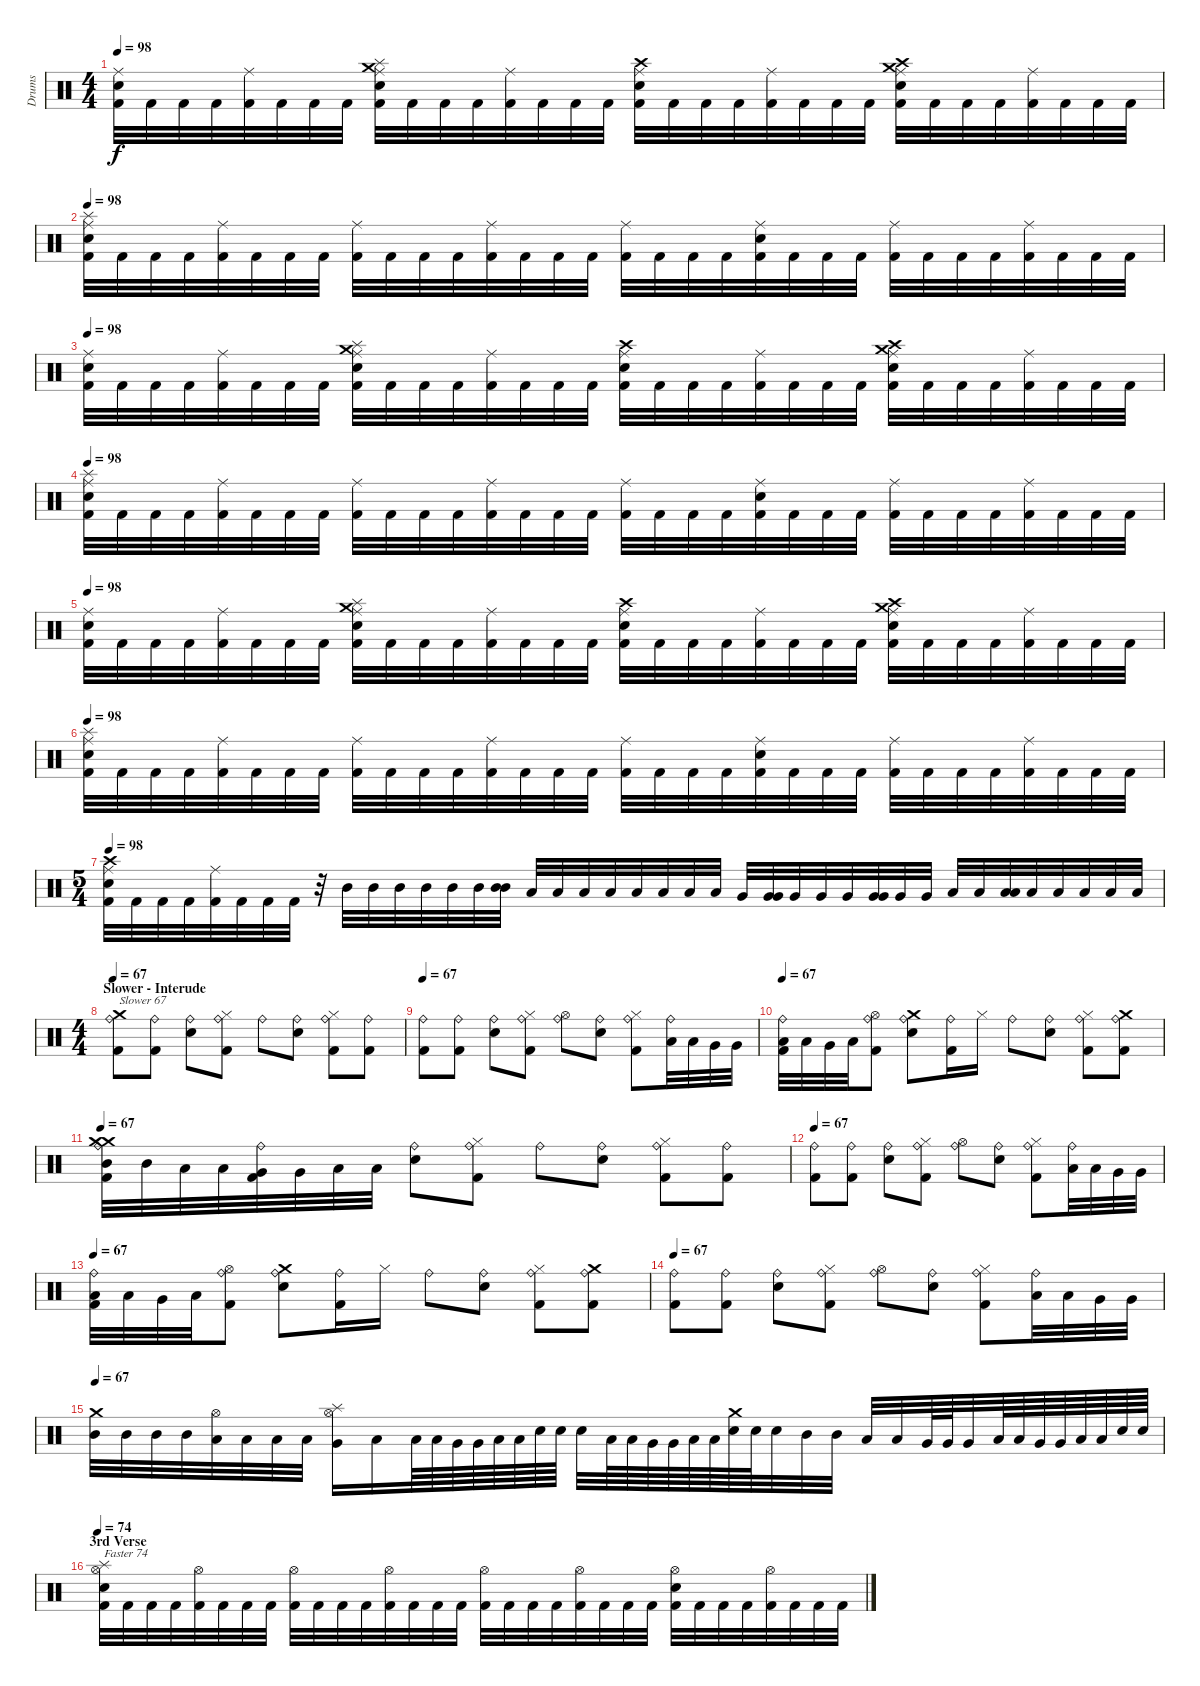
\track ("Drums" "Drums") {instrument percussion}
\staff {score}
\articulation defaults
\ts (4 4)
\tempo 98
\clef neutral
\ks c
("Ride (middle)" "Electric Snare (hit)" "Kick (hit) 2").32{dy f} "Kick (hit) 2".32 "Kick (hit) 2".32 "Kick (hit) 2".32 ("Kick (hit) 2" "Ride (middle)").32 "Kick (hit) 2".32 "Kick (hit) 2".32 "Kick (hit) 2".32 ("Kick (hit) 2" "Ride (middle)" "Electric Snare (hit)" "Splash (hit)" "Crash medium (hit)").32 "Kick (hit) 2".32 "Kick (hit) 2".32 "Kick (hit) 2".32 ("Kick (hit) 2" "Ride (middle)").32 "Kick (hit) 2".32 "Kick (hit) 2".32 "Kick (hit) 2".32 ("Kick (hit) 2" "Ride (middle)" "Electric Snare (hit)" "Crash high (hit)").32 "Kick (hit) 2".32 "Kick (hit) 2".32 "Kick (hit) 2".32 ("Kick (hit) 2" "Ride (middle)").32 "Kick (hit) 2".32 "Kick (hit) 2".32 "Kick (hit) 2".32 ("Electric Snare (hit)" "Kick (hit) 2" "Ride (middle)" "Crash medium (hit)" "Crash high (hit)").32 "Kick (hit) 2".32 "Kick (hit) 2".32 "Kick (hit) 2".32 ("Kick (hit) 2" "Ride (middle)").32 "Kick (hit) 2".32 "Kick (hit) 2".32 "Kick (hit) 2".32 |
\tempo 98
("Ride (middle)" "Electric Snare (hit)" "Splash (hit)" "Kick (hit) 2").32 "Kick (hit) 2".32 "Kick (hit) 2".32 "Kick (hit) 2".32 ("Kick (hit) 2" "Ride (middle)").32 "Kick (hit) 2".32 "Kick (hit) 2".32 "Kick (hit) 2".32 ("Kick (hit) 2" "Ride (middle)").32 "Kick (hit) 2".32 "Kick (hit) 2".32 "Kick (hit) 2".32 ("Kick (hit) 2" "Ride (middle)").32 "Kick (hit) 2".32 "Kick (hit) 2".32 "Kick (hit) 2".32 ("Kick (hit) 2" "Ride (middle)").32 "Kick (hit) 2".32 "Kick (hit) 2".32 "Kick (hit) 2".32 ("Kick (hit) 2" "Ride (middle)" "Electric Snare (hit)").32 "Kick (hit) 2".32 "Kick (hit) 2".32 "Kick (hit) 2".32 ("Kick (hit) 2" "Ride (middle)").32 "Kick (hit) 2".32 "Kick (hit) 2".32 "Kick (hit) 2".32 ("Kick (hit) 2" "Ride (middle)").32 "Kick (hit) 2".32 "Kick (hit) 2".32 "Kick (hit) 2".32 |
\tempo 98
("Ride (middle)" "Electric Snare (hit)" "Kick (hit) 2").32 "Kick (hit) 2".32 "Kick (hit) 2".32 "Kick (hit) 2".32 ("Kick (hit) 2" "Ride (middle)").32 "Kick (hit) 2".32 "Kick (hit) 2".32 "Kick (hit) 2".32 ("Kick (hit) 2" "Ride (middle)" "Electric Snare (hit)" "Splash (hit)" "Crash medium (hit)").32 "Kick (hit) 2".32 "Kick (hit) 2".32 "Kick (hit) 2".32 ("Kick (hit) 2" "Ride (middle)").32 "Kick (hit) 2".32 "Kick (hit) 2".32 "Kick (hit) 2".32 ("Kick (hit) 2" "Ride (middle)" "Electric Snare (hit)" "Crash high (hit)").32 "Kick (hit) 2".32 "Kick (hit) 2".32 "Kick (hit) 2".32 ("Kick (hit) 2" "Ride (middle)").32 "Kick (hit) 2".32 "Kick (hit) 2".32 "Kick (hit) 2".32 ("Electric Snare (hit)" "Kick (hit) 2" "Ride (middle)" "Crash medium (hit)" "Crash high (hit)").32 "Kick (hit) 2".32 "Kick (hit) 2".32 "Kick (hit) 2".32 ("Kick (hit) 2" "Ride (middle)").32 "Kick (hit) 2".32 "Kick (hit) 2".32 "Kick (hit) 2".32 |
\tempo 98
("Ride (middle)" "Electric Snare (hit)" "Splash (hit)" "Kick (hit) 2").32 "Kick (hit) 2".32 "Kick (hit) 2".32 "Kick (hit) 2".32 ("Kick (hit) 2" "Ride (middle)").32 "Kick (hit) 2".32 "Kick (hit) 2".32 "Kick (hit) 2".32 ("Kick (hit) 2" "Ride (middle)").32 "Kick (hit) 2".32 "Kick (hit) 2".32 "Kick (hit) 2".32 ("Kick (hit) 2" "Ride (middle)").32 "Kick (hit) 2".32 "Kick (hit) 2".32 "Kick (hit) 2".32 ("Kick (hit) 2" "Ride (middle)").32 "Kick (hit) 2".32 "Kick (hit) 2".32 "Kick (hit) 2".32 ("Kick (hit) 2" "Ride (middle)" "Electric Snare (hit)").32 "Kick (hit) 2".32 "Kick (hit) 2".32 "Kick (hit) 2".32 ("Kick (hit) 2" "Ride (middle)").32 "Kick (hit) 2".32 "Kick (hit) 2".32 "Kick (hit) 2".32 ("Kick (hit) 2" "Ride (middle)").32 "Kick (hit) 2".32 "Kick (hit) 2".32 "Kick (hit) 2".32 |
\tempo 98
("Ride (middle)" "Electric Snare (hit)" "Kick (hit) 2").32 "Kick (hit) 2".32 "Kick (hit) 2".32 "Kick (hit) 2".32 ("Kick (hit) 2" "Ride (middle)").32 "Kick (hit) 2".32 "Kick (hit) 2".32 "Kick (hit) 2".32 ("Kick (hit) 2" "Ride (middle)" "Electric Snare (hit)" "Splash (hit)" "Crash medium (hit)").32 "Kick (hit) 2".32 "Kick (hit) 2".32 "Kick (hit) 2".32 ("Kick (hit) 2" "Ride (middle)").32 "Kick (hit) 2".32 "Kick (hit) 2".32 "Kick (hit) 2".32 ("Kick (hit) 2" "Ride (middle)" "Electric Snare (hit)" "Crash high (hit)").32 "Kick (hit) 2".32 "Kick (hit) 2".32 "Kick (hit) 2".32 ("Kick (hit) 2" "Ride (middle)").32 "Kick (hit) 2".32 "Kick (hit) 2".32 "Kick (hit) 2".32 ("Electric Snare (hit)" "Kick (hit) 2" "Ride (middle)" "Crash medium (hit)" "Crash high (hit)").32 "Kick (hit) 2".32 "Kick (hit) 2".32 "Kick (hit) 2".32 ("Kick (hit) 2" "Ride (middle)").32 "Kick (hit) 2".32 "Kick (hit) 2".32 "Kick (hit) 2".32 |
\tempo 98
("Kick (hit) 2" "Splash (hit)" "Electric Snare (hit)" "Ride (middle)").32 "Kick (hit) 2".32 "Kick (hit) 2".32 "Kick (hit) 2".32 ("Kick (hit) 2" "Ride (middle)").32 "Kick (hit) 2".32 "Kick (hit) 2".32 "Kick (hit) 2".32 ("Kick (hit) 2" "Ride (middle)").32 "Kick (hit) 2".32 "Kick (hit) 2".32 "Kick (hit) 2".32 ("Kick (hit) 2" "Ride (middle)").32 "Kick (hit) 2".32 "Kick (hit) 2".32 "Kick (hit) 2".32 ("Kick (hit) 2" "Ride (middle)").32 "Kick (hit) 2".32 "Kick (hit) 2".32 "Kick (hit) 2".32 ("Kick (hit) 2" "Ride (middle)" "Electric Snare (hit)").32 "Kick (hit) 2".32 "Kick (hit) 2".32 "Kick (hit) 2".32 ("Kick (hit) 2" "Ride (middle)").32 "Kick (hit) 2".32 "Kick (hit) 2".32 "Kick (hit) 2".32 ("Kick (hit) 2" "Ride (middle)").32 "Kick (hit) 2".32 "Kick (hit) 2".32 "Kick (hit) 2".32 |
\ts (5 4)
\tempo 98
("Ride (middle)" "Electric Snare (hit)" "Kick (hit) 2" "Crash high (hit)").32 "Kick (hit) 2".32 "Kick (hit) 2".32 "Kick (hit) 2".32 ("Kick (hit) 2" "Ride (middle)").32 "Kick (hit) 2".32 "Kick (hit) 2".32 "Kick (hit) 2".32 r.32 "Mid Tom (hit)".32 "Mid Tom (hit)".32 "Mid Tom (hit)".32 "Mid Tom (hit)".32 "Mid Tom (hit)".32 "Mid Tom (hit)".32 ("Mid Tom (hit)" "Mid Tom (hit)").32 "Low Tom (hit)".32 "Low Tom (hit)".32 "Low Tom (hit)".32 "Low Tom (hit)".32 "Low Tom (hit)".32 "Low Tom (hit)".32 "Low Tom (hit)".32 "Low Tom (hit)".32 "Very Low Tom (hit)".32 ("Very Low Tom (hit)" "Very Low Tom (hit)").32 "Very Low Tom (hit)".32 "Very Low Tom (hit)".32 "Very Low Tom (hit)".32 ("Very Low Tom (hit)" "Very Low Tom (hit)").32 "Very Low Tom (hit)".32 "Very Low Tom (hit)".32 "Low Floor Tom (hit)".32 "Low Floor Tom (hit)".32 ("Low Floor Tom (hit)" "Low Floor Tom (hit)").32 "Low Floor Tom (hit)".32 "Low Floor Tom (hit)".32 "Low Floor Tom (hit)".32 "Low Floor Tom (hit)".32 "Low Floor Tom (hit)".32 |
\ts (4 4)
\section ("" "Slower - Interude")
\tempo 67
("Kick (hit) 2" "Ride (bell)" "Crash medium (hit)").8{txt "Slower 67"} ("Ride (bell)" "Kick (hit) 2").8 ("Ride (bell)" "Electric Snare (hit)").8 ("Ride (bell)" "Kick (hit) 2" "Hi-Hat (closed)").8 "Ride (bell)".8 ("Electric Snare (hit)" "Ride (bell)").8 ("Kick (hit) 2" "Hi-Hat (closed)" "Ride (bell)").8 ("Kick (hit) 2" "Ride (bell)").8 |
\tempo 67
("Kick (hit) 2" "Ride (bell)").8 ("Ride (bell)" "Kick (hit) 2").8 ("Ride (bell)" "Electric Snare (hit)").8 ("Ride (bell)" "Kick (hit) 2" "Hi-Hat (closed)").8 ("Ride (bell)" "Hi-Hat (open)").8 ("Ride (bell)" "Electric Snare (hit)").8 ("Ride (bell)" "Kick (hit) 2" "Hi-Hat (closed)").8 ("Low Tom (hit)" "Ride (bell)").32 "Low Tom (hit)".32 "Very Low Tom (hit)".32 "Very Low Tom (hit)".32 |
\tempo 67
("Low Floor Tom (hit)" "Ride (bell)" "Kick (hit) 2").32 "Low Floor Tom (hit)".32 "Very Low Tom (hit)".32 "Low Floor Tom (hit)".32 ("Ride (bell)" "Kick (hit) 2" "Hi-Hat (open)").8 ("Ride (bell)" "Crash medium (hit)" "Electric Snare (hit)").8 ("Ride (bell)" "Kick (hit) 2").16 "Hi-Hat (closed)".16 "Ride (bell)".8 ("Ride (bell)" "Electric Snare (hit)").8 ("Ride (bell)" "Hi-Hat (closed)" "Kick (hit) 2").8 ("Ride (bell)" "Kick (hit) 2" "Crash medium (hit)").8 |
\tempo 67
("Mid Tom (hit)" "Crash medium (hit)" "Kick (hit) 2" "Ride (bell)" "Crash medium (hit)").32 "Mid Tom (hit)".32 "Low Tom (hit)".32 "Low Tom (hit)".32 ("Ride (bell)" "Kick (hit) 2" "Very Low Tom (hit)").32 "Very Low Tom (hit)".32 "Low Floor Tom (hit)".32 "Low Floor Tom (hit)".32 ("Ride (bell)" "Electric Snare (hit)").8 ("Ride (bell)" "Kick (hit) 2" "Hi-Hat (closed)").8 "Ride (bell)".8 ("Electric Snare (hit)" "Ride (bell)").8 ("Kick (hit) 2" "Hi-Hat (closed)" "Ride (bell)").8 ("Kick (hit) 2" "Ride (bell)").8 |
\tempo 67
("Kick (hit) 2" "Ride (bell)").8 ("Ride (bell)" "Kick (hit) 2").8 ("Ride (bell)" "Electric Snare (hit)").8 ("Ride (bell)" "Kick (hit) 2" "Hi-Hat (closed)").8 ("Ride (bell)" "Hi-Hat (open)").8 ("Ride (bell)" "Electric Snare (hit)").8 ("Ride (bell)" "Kick (hit) 2" "Hi-Hat (closed)").8 ("Low Tom (hit)" "Ride (bell)").32 "Low Tom (hit)".32 "Very Low Tom (hit)".32 "Very Low Tom (hit)".32 |
\tempo 67
("Low Floor Tom (hit)" "Ride (bell)" "Kick (hit) 2").32 "Low Floor Tom (hit)".32 "Very Low Tom (hit)".32 "Low Floor Tom (hit)".32 ("Ride (bell)" "Kick (hit) 2" "Hi-Hat (open)").8 ("Ride (bell)" "Crash medium (hit)" "Electric Snare (hit)").8 ("Ride (bell)" "Kick (hit) 2").16 "Hi-Hat (closed)".16 "Ride (bell)".8 ("Ride (bell)" "Electric Snare (hit)").8 ("Ride (bell)" "Hi-Hat (closed)" "Kick (hit) 2").8 ("Ride (bell)" "Kick (hit) 2" "Crash medium (hit)").8 |
\tempo 67
("Ride (bell)" "Kick (hit) 2").8 ("Ride (bell)" "Kick (hit) 2").8 ("Ride (bell)" "Electric Snare (hit)").8 ("Ride (bell)" "Kick (hit) 2" "Hi-Hat (closed)").8 ("Ride (bell)" "Hi-Hat (open)").8 ("Ride (bell)" "Electric Snare (hit)").8 ("Ride (bell)" "Kick (hit) 2" "Hi-Hat (closed)").8 ("Low Tom (hit)" "Ride (bell)").32 "Low Tom (hit)".32 "Very Low Tom (hit)".32 "Very Low Tom (hit)".32 |
\tempo 67
("Crash medium (hit)" "Mid Tom (hit)").32 "Mid Tom (hit)".32 "Mid Tom (hit)".32 "Mid Tom (hit)".32 ("Hi-Hat (open)" "Low Tom (hit)").32 "Low Tom (hit)".32 "Low Tom (hit)".32 "Low Tom (hit)".32 ("Hi-Hat (open)" "Very Low Tom (hit)" "Splash (hit)").16 "Low Tom (hit)".16 "Low Tom (hit)".64 "Low Tom (hit)".64 "Very Low Tom (hit)".64 "Very Low Tom (hit)".64 "Low Floor Tom (hit)".64 "Low Floor Tom (hit)".64 "Electric Snare (hit)".64 "Electric Snare (hit)".64 "Electric Snare (hit)".32 "Low Tom (hit)".64 "Low Tom (hit)".64 "Very Low Tom (hit)".64 "Very Low Tom (hit)".64 "Low Floor Tom (hit)".64 "Low Floor Tom (hit)".64 ("Crash medium (hit)" "Electric Snare (hit)").64 "Electric Snare (hit)".64 "Electric Snare (hit)".32 "Mid Tom (hit)".32 "Mid Tom (hit)".32 "Low Tom (hit)".32 "Low Tom (hit)".32 "Very Low Tom (hit)".64 "Very Low Tom (hit)".64 "Very Low Tom (hit)".32 "Low Tom (hit)".64 "Low Tom (hit)".64 "Very Low Tom (hit)".64 "Very Low Tom (hit)".64 "Low Floor Tom (hit)".64 "Low Floor Tom (hit)".64 "Electric Snare (hit)".64 "Electric Snare (hit)".64 |
\section ("" "3rd Verse")
\tempo 74
("Electric Snare (hit)" "Hi-Hat (open)" "Kick (hit) 2" "Splash (hit)").32{txt "Faster 74"} "Kick (hit) 2".32 "Kick (hit) 2".32 "Kick (hit) 2".32 ("Hi-Hat (open)" "Kick (hit) 2").32 "Kick (hit) 2".32 "Kick (hit) 2".32 "Kick (hit) 2".32 ("Hi-Hat (open)" "Kick (hit) 2").32 "Kick (hit) 2".32 "Kick (hit) 2".32 "Kick (hit) 2".32 ("Hi-Hat (open)" "Kick (hit) 2").32 "Kick (hit) 2".32 "Kick (hit) 2".32 "Kick (hit) 2".32 ("Hi-Hat (open)" "Kick (hit) 2").32 "Kick (hit) 2".32 "Kick (hit) 2".32 "Kick (hit) 2".32 ("Hi-Hat (open)" "Kick (hit) 2").32 "Kick (hit) 2".32 "Kick (hit) 2".32 "Kick (hit) 2".32 ("Hi-Hat (open)" "Electric Snare (hit)" "Kick (hit) 2").32 "Kick (hit) 2".32 "Kick (hit) 2".32 "Kick (hit) 2".32 ("Hi-Hat (open)" "Kick (hit) 2").32 "Kick (hit) 2".32 "Kick (hit) 2".32 "Kick (hit) 2".32
